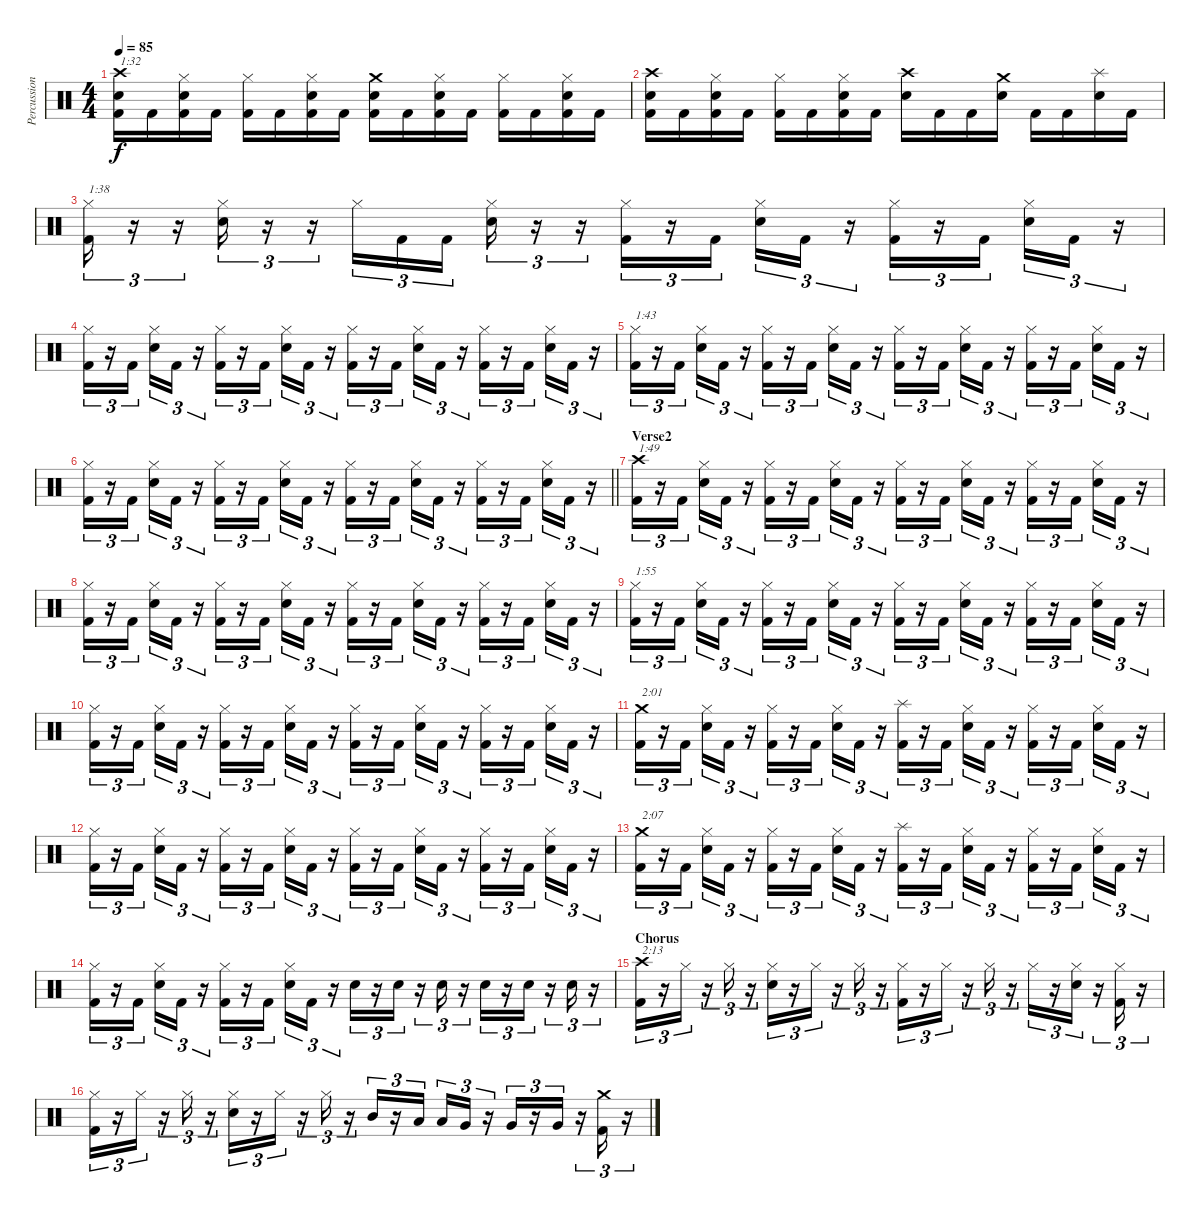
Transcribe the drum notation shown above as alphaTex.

\track ("Percussion" "Percussion") {instrument percussion}
\staff {score}
\articulation defaults
\ts (4 4)
\tempo 85
\clef neutral
\ks c
("Crash high (hit)" "Snare (hit) 2" "Kick (hit) 2").16{txt "1:32" dy f} "Kick (hit) 2".16 ("Hi-Hat (closed)" "Snare (hit) 2" "Kick (hit) 2").16 "Kick (hit) 2".16 ("Hi-Hat (closed)" "Kick (hit) 2").16 "Kick (hit) 2".16 ("Hi-Hat (closed)" "Snare (hit) 2" "Kick (hit) 2").16 "Kick (hit) 2".16 ("Crash medium (hit)" "Snare (hit) 2" "Kick (hit) 2").16 "Kick (hit) 2".16 ("Hi-Hat (closed)" "Snare (hit) 2" "Kick (hit) 2").16 "Kick (hit) 2".16 ("Hi-Hat (closed)" "Kick (hit) 2").16 "Kick (hit) 2".16 ("Hi-Hat (closed)" "Snare (hit) 2" "Kick (hit) 2").16 "Kick (hit) 2".16 |
("Crash high (hit)" "Snare (hit) 2" "Kick (hit) 2").16 "Kick (hit) 2".16 ("Hi-Hat (closed)" "Snare (hit) 2" "Kick (hit) 2").16 "Kick (hit) 2".16 ("Hi-Hat (closed)" "Kick (hit) 2").16 "Kick (hit) 2".16 ("Hi-Hat (closed)" "Snare (hit) 2" "Kick (hit) 2").16 "Kick (hit) 2".16 ("Crash high (hit)" "Snare (hit) 2").16 "Kick (hit) 2".16 "Kick (hit) 2".16 ("Crash medium (hit)" "Snare (hit) 2").16 "Kick (hit) 2".16 "Kick (hit) 2".16 ("Splash (hit)" "Snare (hit) 2").16 "Kick (hit) 2".16 |
("Hi-Hat (closed)" "Kick (hit) 2").16{tu (3 2) txt "1:38"} r.16{tu (3 2)} r.16{tu (3 2)} ("Hi-Hat (closed)" "Snare (hit) 2").16{tu (3 2)} r.16{tu (3 2)} r.16{tu (3 2)} "Hi-Hat (closed)".16{tu (3 2)} "Kick (hit) 2".16{tu (3 2)} "Kick (hit) 2".16{tu (3 2)} ("Hi-Hat (closed)" "Snare (hit) 2").16{tu (3 2)} r.16{tu (3 2)} r.16{tu (3 2)} ("Hi-Hat (closed)" "Kick (hit) 2").16{tu (3 2)} r.16{tu (3 2)} "Kick (hit) 2".16{tu (3 2)} ("Hi-Hat (closed)" "Snare (hit) 2").16{tu (3 2)} "Kick (hit) 2".16{tu (3 2)} r.16{tu (3 2)} ("Hi-Hat (closed)" "Kick (hit) 2").16{tu (3 2)} r.16{tu (3 2)} "Kick (hit) 2".16{tu (3 2)} ("Hi-Hat (closed)" "Snare (hit) 2").16{tu (3 2)} "Kick (hit) 2".16{tu (3 2)} r.16{tu (3 2)} |
("Hi-Hat (closed)" "Kick (hit) 2").16{tu (3 2)} r.16{tu (3 2)} "Kick (hit) 2".16{tu (3 2)} ("Hi-Hat (closed)" "Snare (hit) 2").16{tu (3 2)} "Kick (hit) 2".16{tu (3 2)} r.16{tu (3 2)} ("Hi-Hat (closed)" "Kick (hit) 2").16{tu (3 2)} r.16{tu (3 2)} "Kick (hit) 2".16{tu (3 2)} ("Hi-Hat (closed)" "Snare (hit) 2").16{tu (3 2)} "Kick (hit) 2".16{tu (3 2)} r.16{tu (3 2)} ("Hi-Hat (closed)" "Kick (hit) 2").16{tu (3 2)} r.16{tu (3 2)} "Kick (hit) 2".16{tu (3 2)} ("Hi-Hat (closed)" "Snare (hit) 2").16{tu (3 2)} "Kick (hit) 2".16{tu (3 2)} r.16{tu (3 2)} ("Hi-Hat (closed)" "Kick (hit) 2").16{tu (3 2)} r.16{tu (3 2)} "Kick (hit) 2".16{tu (3 2)} ("Hi-Hat (closed)" "Snare (hit) 2").16{tu (3 2)} "Kick (hit) 2".16{tu (3 2)} r.16{tu (3 2)} |
("Hi-Hat (closed)" "Kick (hit) 2").16{tu (3 2) txt "1:43"} r.16{tu (3 2)} "Kick (hit) 2".16{tu (3 2)} ("Hi-Hat (closed)" "Snare (hit) 2").16{tu (3 2)} "Kick (hit) 2".16{tu (3 2)} r.16{tu (3 2)} ("Hi-Hat (closed)" "Kick (hit) 2").16{tu (3 2)} r.16{tu (3 2)} "Kick (hit) 2".16{tu (3 2)} ("Hi-Hat (closed)" "Snare (hit) 2").16{tu (3 2)} "Kick (hit) 2".16{tu (3 2)} r.16{tu (3 2)} ("Hi-Hat (closed)" "Kick (hit) 2").16{tu (3 2)} r.16{tu (3 2)} "Kick (hit) 2".16{tu (3 2)} ("Hi-Hat (closed)" "Snare (hit) 2").16{tu (3 2)} "Kick (hit) 2".16{tu (3 2)} r.16{tu (3 2)} ("Hi-Hat (closed)" "Kick (hit) 2").16{tu (3 2)} r.16{tu (3 2)} "Kick (hit) 2".16{tu (3 2)} ("Hi-Hat (closed)" "Snare (hit) 2").16{tu (3 2)} "Kick (hit) 2".16{tu (3 2)} r.16{tu (3 2)} |
\barLineRight lightlight
("Hi-Hat (closed)" "Kick (hit) 2").16{tu (3 2)} r.16{tu (3 2)} "Kick (hit) 2".16{tu (3 2)} ("Hi-Hat (closed)" "Snare (hit) 2").16{tu (3 2)} "Kick (hit) 2".16{tu (3 2)} r.16{tu (3 2)} ("Hi-Hat (closed)" "Kick (hit) 2").16{tu (3 2)} r.16{tu (3 2)} "Kick (hit) 2".16{tu (3 2)} ("Hi-Hat (closed)" "Snare (hit) 2").16{tu (3 2)} "Kick (hit) 2".16{tu (3 2)} r.16{tu (3 2)} ("Hi-Hat (closed)" "Kick (hit) 2").16{tu (3 2)} r.16{tu (3 2)} "Kick (hit) 2".16{tu (3 2)} ("Hi-Hat (closed)" "Snare (hit) 2").16{tu (3 2)} "Kick (hit) 2".16{tu (3 2)} r.16{tu (3 2)} ("Hi-Hat (closed)" "Kick (hit) 2").16{tu (3 2)} r.16{tu (3 2)} "Kick (hit) 2".16{tu (3 2)} ("Hi-Hat (closed)" "Snare (hit) 2").16{tu (3 2)} "Kick (hit) 2".16{tu (3 2)} r.16{tu (3 2)} |
\section ("" "Verse2")
("Crash high (hit)" "Kick (hit) 2").16{tu (3 2) txt "1:49"} r.16{tu (3 2)} "Kick (hit) 2".16{tu (3 2)} ("Hi-Hat (closed)" "Snare (hit) 2").16{tu (3 2)} "Kick (hit) 2".16{tu (3 2)} r.16{tu (3 2)} ("Hi-Hat (closed)" "Kick (hit) 2").16{tu (3 2)} r.16{tu (3 2)} "Kick (hit) 2".16{tu (3 2)} ("Hi-Hat (closed)" "Snare (hit) 2").16{tu (3 2)} "Kick (hit) 2".16{tu (3 2)} r.16{tu (3 2)} ("Hi-Hat (closed)" "Kick (hit) 2").16{tu (3 2)} r.16{tu (3 2)} "Kick (hit) 2".16{tu (3 2)} ("Hi-Hat (closed)" "Snare (hit) 2").16{tu (3 2)} "Kick (hit) 2".16{tu (3 2)} r.16{tu (3 2)} ("Hi-Hat (closed)" "Kick (hit) 2").16{tu (3 2)} r.16{tu (3 2)} "Kick (hit) 2".16{tu (3 2)} ("Hi-Hat (closed)" "Snare (hit) 2").16{tu (3 2)} "Kick (hit) 2".16{tu (3 2)} r.16{tu (3 2)} |
("Hi-Hat (closed)" "Kick (hit) 2").16{tu (3 2)} r.16{tu (3 2)} "Kick (hit) 2".16{tu (3 2)} ("Hi-Hat (closed)" "Snare (hit) 2").16{tu (3 2)} "Kick (hit) 2".16{tu (3 2)} r.16{tu (3 2)} ("Hi-Hat (closed)" "Kick (hit) 2").16{tu (3 2)} r.16{tu (3 2)} "Kick (hit) 2".16{tu (3 2)} ("Hi-Hat (closed)" "Snare (hit) 2").16{tu (3 2)} "Kick (hit) 2".16{tu (3 2)} r.16{tu (3 2)} ("Hi-Hat (closed)" "Kick (hit) 2").16{tu (3 2)} r.16{tu (3 2)} "Kick (hit) 2".16{tu (3 2)} ("Hi-Hat (closed)" "Snare (hit) 2").16{tu (3 2)} "Kick (hit) 2".16{tu (3 2)} r.16{tu (3 2)} ("Hi-Hat (closed)" "Kick (hit) 2").16{tu (3 2)} r.16{tu (3 2)} "Kick (hit) 2".16{tu (3 2)} ("Hi-Hat (closed)" "Snare (hit) 2").16{tu (3 2)} "Kick (hit) 2".16{tu (3 2)} r.16{tu (3 2)} |
("Hi-Hat (closed)" "Kick (hit) 2").16{tu (3 2) txt "1:55"} r.16{tu (3 2)} "Kick (hit) 2".16{tu (3 2)} ("Hi-Hat (closed)" "Snare (hit) 2").16{tu (3 2)} "Kick (hit) 2".16{tu (3 2)} r.16{tu (3 2)} ("Hi-Hat (closed)" "Kick (hit) 2").16{tu (3 2)} r.16{tu (3 2)} "Kick (hit) 2".16{tu (3 2)} ("Hi-Hat (closed)" "Snare (hit) 2").16{tu (3 2)} "Kick (hit) 2".16{tu (3 2)} r.16{tu (3 2)} ("Hi-Hat (closed)" "Kick (hit) 2").16{tu (3 2)} r.16{tu (3 2)} "Kick (hit) 2".16{tu (3 2)} ("Hi-Hat (closed)" "Snare (hit) 2").16{tu (3 2)} "Kick (hit) 2".16{tu (3 2)} r.16{tu (3 2)} ("Hi-Hat (closed)" "Kick (hit) 2").16{tu (3 2)} r.16{tu (3 2)} "Kick (hit) 2".16{tu (3 2)} ("Hi-Hat (closed)" "Snare (hit) 2").16{tu (3 2)} "Kick (hit) 2".16{tu (3 2)} r.16{tu (3 2)} |
("Hi-Hat (closed)" "Kick (hit) 2").16{tu (3 2)} r.16{tu (3 2)} "Kick (hit) 2".16{tu (3 2)} ("Hi-Hat (closed)" "Snare (hit) 2").16{tu (3 2)} "Kick (hit) 2".16{tu (3 2)} r.16{tu (3 2)} ("Hi-Hat (closed)" "Kick (hit) 2").16{tu (3 2)} r.16{tu (3 2)} "Kick (hit) 2".16{tu (3 2)} ("Hi-Hat (closed)" "Snare (hit) 2").16{tu (3 2)} "Kick (hit) 2".16{tu (3 2)} r.16{tu (3 2)} ("Hi-Hat (closed)" "Kick (hit) 2").16{tu (3 2)} r.16{tu (3 2)} "Kick (hit) 2".16{tu (3 2)} ("Hi-Hat (closed)" "Snare (hit) 2").16{tu (3 2)} "Kick (hit) 2".16{tu (3 2)} r.16{tu (3 2)} ("Hi-Hat (closed)" "Kick (hit) 2").16{tu (3 2)} r.16{tu (3 2)} "Kick (hit) 2".16{tu (3 2)} ("Hi-Hat (closed)" "Snare (hit) 2").16{tu (3 2)} "Kick (hit) 2".16{tu (3 2)} r.16{tu (3 2)} |
("Crash medium (hit)" "Kick (hit) 2").16{tu (3 2) txt "2:01"} r.16{tu (3 2)} "Kick (hit) 2".16{tu (3 2)} ("Hi-Hat (closed)" "Snare (hit) 2").16{tu (3 2)} "Kick (hit) 2".16{tu (3 2)} r.16{tu (3 2)} ("Hi-Hat (closed)" "Kick (hit) 2").16{tu (3 2)} r.16{tu (3 2)} "Kick (hit) 2".16{tu (3 2)} ("Hi-Hat (closed)" "Snare (hit) 2").16{tu (3 2)} "Kick (hit) 2".16{tu (3 2)} r.16{tu (3 2)} ("Splash (hit)" "Kick (hit) 2").16{tu (3 2)} r.16{tu (3 2)} "Kick (hit) 2".16{tu (3 2)} ("Hi-Hat (closed)" "Snare (hit) 2").16{tu (3 2)} "Kick (hit) 2".16{tu (3 2)} r.16{tu (3 2)} ("Hi-Hat (closed)" "Kick (hit) 2").16{tu (3 2)} r.16{tu (3 2)} "Kick (hit) 2".16{tu (3 2)} ("Hi-Hat (closed)" "Snare (hit) 2").16{tu (3 2)} "Kick (hit) 2".16{tu (3 2)} r.16{tu (3 2)} |
("Hi-Hat (closed)" "Kick (hit) 2").16{tu (3 2)} r.16{tu (3 2)} "Kick (hit) 2".16{tu (3 2)} ("Hi-Hat (closed)" "Snare (hit) 2").16{tu (3 2)} "Kick (hit) 2".16{tu (3 2)} r.16{tu (3 2)} ("Hi-Hat (closed)" "Kick (hit) 2").16{tu (3 2)} r.16{tu (3 2)} "Kick (hit) 2".16{tu (3 2)} ("Hi-Hat (closed)" "Snare (hit) 2").16{tu (3 2)} "Kick (hit) 2".16{tu (3 2)} r.16{tu (3 2)} ("Hi-Hat (closed)" "Kick (hit) 2").16{tu (3 2)} r.16{tu (3 2)} "Kick (hit) 2".16{tu (3 2)} ("Hi-Hat (closed)" "Snare (hit) 2").16{tu (3 2)} "Kick (hit) 2".16{tu (3 2)} r.16{tu (3 2)} ("Hi-Hat (closed)" "Kick (hit) 2").16{tu (3 2)} r.16{tu (3 2)} "Kick (hit) 2".16{tu (3 2)} ("Hi-Hat (closed)" "Snare (hit) 2").16{tu (3 2)} "Kick (hit) 2".16{tu (3 2)} r.16{tu (3 2)} |
("Crash medium (hit)" "Kick (hit) 2").16{tu (3 2) txt "2:07"} r.16{tu (3 2)} "Kick (hit) 2".16{tu (3 2)} ("Hi-Hat (closed)" "Snare (hit) 2").16{tu (3 2)} "Kick (hit) 2".16{tu (3 2)} r.16{tu (3 2)} ("Hi-Hat (closed)" "Kick (hit) 2").16{tu (3 2)} r.16{tu (3 2)} "Kick (hit) 2".16{tu (3 2)} ("Hi-Hat (closed)" "Snare (hit) 2").16{tu (3 2)} "Kick (hit) 2".16{tu (3 2)} r.16{tu (3 2)} ("Splash (hit)" "Kick (hit) 2").16{tu (3 2)} r.16{tu (3 2)} "Kick (hit) 2".16{tu (3 2)} ("Hi-Hat (closed)" "Snare (hit) 2").16{tu (3 2)} "Kick (hit) 2".16{tu (3 2)} r.16{tu (3 2)} ("Hi-Hat (closed)" "Kick (hit) 2").16{tu (3 2)} r.16{tu (3 2)} "Kick (hit) 2".16{tu (3 2)} ("Hi-Hat (closed)" "Snare (hit) 2").16{tu (3 2)} "Kick (hit) 2".16{tu (3 2)} r.16{tu (3 2)} |
("Hi-Hat (closed)" "Kick (hit) 2").16{tu (3 2)} r.16{tu (3 2)} "Kick (hit) 2".16{tu (3 2)} ("Hi-Hat (closed)" "Snare (hit) 2").16{tu (3 2)} "Kick (hit) 2".16{tu (3 2)} r.16{tu (3 2)} ("Hi-Hat (closed)" "Kick (hit) 2").16{tu (3 2)} r.16{tu (3 2)} "Kick (hit) 2".16{tu (3 2)} ("Hi-Hat (closed)" "Snare (hit) 2").16{tu (3 2)} "Kick (hit) 2".16{tu (3 2)} r.16{tu (3 2)} "Snare (hit) 2".16{tu (3 2)} r.16{tu (3 2)} "Snare (hit) 2".16{tu (3 2)} r.16{tu (3 2)} "Snare (hit) 2".16{tu (3 2)} r.16{tu (3 2)} "Snare (hit) 2".16{tu (3 2)} r.16{tu (3 2)} "Snare (hit) 2".16{tu (3 2)} r.16{tu (3 2)} "Snare (hit) 2".16{tu (3 2)} r.16{tu (3 2)} |
\section ("" "Chorus")
("Crash high (hit)" "Kick (hit) 2").16{tu (3 2) txt "2:13"} r.16{tu (3 2)} "Hi-Hat (closed)".16{tu (3 2)} r.16{tu (3 2)} "Hi-Hat (closed)".16{tu (3 2)} r.16{tu (3 2)} ("Hi-Hat (closed)" "Snare (hit) 2").16{tu (3 2)} r.16{tu (3 2)} "Hi-Hat (closed)".16{tu (3 2)} r.16{tu (3 2)} "Hi-Hat (closed)".16{tu (3 2)} r.16{tu (3 2)} ("Hi-Hat (closed)" "Kick (hit) 2").16{tu (3 2)} r.16{tu (3 2)} "Hi-Hat (closed)".16{tu (3 2)} r.16{tu (3 2)} "Hi-Hat (closed)".16{tu (3 2)} r.16{tu (3 2)} "Hi-Hat (closed)".16{tu (3 2)} r.16{tu (3 2)} ("Hi-Hat (closed)" "Snare (hit) 2").16{tu (3 2)} r.16{tu (3 2)} ("Hi-Hat (closed)" "Kick (hit) 2").16{tu (3 2)} r.16{tu (3 2)} |
("Hi-Hat (closed)" "Kick (hit) 2").16{tu (3 2)} r.16{tu (3 2)} "Hi-Hat (closed)".16{tu (3 2)} r.16{tu (3 2)} "Hi-Hat (closed)".16{tu (3 2)} r.16{tu (3 2)} ("Hi-Hat (closed)" "Snare (hit) 2").16{tu (3 2)} r.16{tu (3 2)} "Hi-Hat (closed)".16{tu (3 2)} r.16{tu (3 2)} "Hi-Hat (closed)".16{tu (3 2)} r.16{tu (3 2)} "Mid Tom (hit)".16{tu (3 2)} r.16{tu (3 2)} "Low Tom (hit)".16{tu (3 2)} "Low Tom (hit)".16{tu (3 2)} "Very Low Tom (hit)".16{tu (3 2)} r.16{tu (3 2)} "Very Low Tom (hit)".16{tu (3 2)} r.16{tu (3 2)} "Very Low Tom (hit)".16{tu (3 2)} r.16{tu (3 2)} ("Crash medium (hit)" "Kick (hit) 2").16{tu (3 2)} r.16{tu (3 2)}
